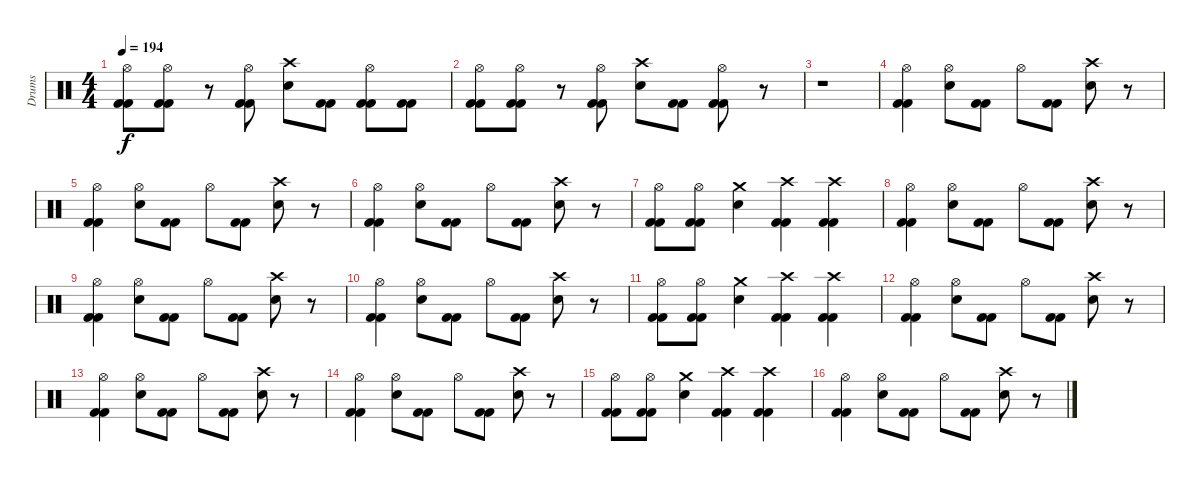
\track ("Drums" "Drums") {instrument percussion}
\staff {score}
\articulation defaults
\ts (4 4)
\tempo 194
\clef neutral
\ks c
("Hi-Hat (open)" "Kick (hit) 2" "Kick (hit) 2").8{dy f} ("Hi-Hat (open)" "Kick (hit) 2" "Kick (hit) 2").8 r.8 ("Hi-Hat (open)" "Kick (hit) 2" "Kick (hit) 2").8 ("Crash high (hit)" "Electric Snare (hit)").8 ("Kick (hit) 2" "Kick (hit) 2").8 ("Hi-Hat (open)" "Kick (hit) 2" "Kick (hit) 2").8 ("Kick (hit) 2" "Kick (hit) 2").8 |
("Hi-Hat (open)" "Kick (hit) 2" "Kick (hit) 2").8 ("Hi-Hat (open)" "Kick (hit) 2" "Kick (hit) 2").8 r.8 ("Hi-Hat (open)" "Kick (hit) 2" "Kick (hit) 2").8 ("Crash high (hit)" "Electric Snare (hit)").8 ("Kick (hit) 2" "Kick (hit) 2").8 ("Hi-Hat (open)" "Kick (hit) 2" "Kick (hit) 2").8 r.8 |
r.1 |
("Hi-Hat (open)" "Kick (hit) 2" "Kick (hit) 2").4 ("Hi-Hat (open)" "Electric Snare (hit)").8 ("Kick (hit) 2" "Kick (hit) 2").8 "Hi-Hat (open)".8 ("Kick (hit) 2" "Kick (hit) 2").8 ("Crash high (hit)" "Electric Snare (hit)").8 r.8 |
("Hi-Hat (open)" "Kick (hit) 2" "Kick (hit) 2").4 ("Hi-Hat (open)" "Electric Snare (hit)").8 ("Kick (hit) 2" "Kick (hit) 2").8 "Hi-Hat (open)".8 ("Kick (hit) 2" "Kick (hit) 2").8 ("Crash high (hit)" "Electric Snare (hit)").8 r.8 |
("Hi-Hat (open)" "Kick (hit) 2" "Kick (hit) 2").4 ("Hi-Hat (open)" "Electric Snare (hit)").8 ("Kick (hit) 2" "Kick (hit) 2").8 "Hi-Hat (open)".8 ("Kick (hit) 2" "Kick (hit) 2").8 ("Crash high (hit)" "Electric Snare (hit)").8 r.8 |
("Hi-Hat (open)" "Kick (hit) 2" "Kick (hit) 2").8 ("Hi-Hat (open)" "Kick (hit) 2" "Kick (hit) 2").8 ("Crash medium (hit)" "Electric Snare (hit)").4 ("Crash high (hit)" "Kick (hit) 2" "Kick (hit) 2").4 ("Crash high (hit)" "Kick (hit) 2" "Kick (hit) 2").4 |
("Hi-Hat (open)" "Kick (hit) 2" "Kick (hit) 2").4 ("Hi-Hat (open)" "Electric Snare (hit)").8 ("Kick (hit) 2" "Kick (hit) 2").8 "Hi-Hat (open)".8 ("Kick (hit) 2" "Kick (hit) 2").8 ("Crash high (hit)" "Electric Snare (hit)").8 r.8 |
("Hi-Hat (open)" "Kick (hit) 2" "Kick (hit) 2").4 ("Hi-Hat (open)" "Electric Snare (hit)").8 ("Kick (hit) 2" "Kick (hit) 2").8 "Hi-Hat (open)".8 ("Kick (hit) 2" "Kick (hit) 2").8 ("Crash high (hit)" "Electric Snare (hit)").8 r.8 |
("Hi-Hat (open)" "Kick (hit) 2" "Kick (hit) 2").4 ("Hi-Hat (open)" "Electric Snare (hit)").8 ("Kick (hit) 2" "Kick (hit) 2").8 "Hi-Hat (open)".8 ("Kick (hit) 2" "Kick (hit) 2").8 ("Crash high (hit)" "Electric Snare (hit)").8 r.8 |
("Hi-Hat (open)" "Kick (hit) 2" "Kick (hit) 2").8 ("Hi-Hat (open)" "Kick (hit) 2" "Kick (hit) 2").8 ("Crash medium (hit)" "Electric Snare (hit)").4 ("Crash high (hit)" "Kick (hit) 2" "Kick (hit) 2").4 ("Crash high (hit)" "Kick (hit) 2" "Kick (hit) 2").4 |
("Hi-Hat (open)" "Kick (hit) 2" "Kick (hit) 2").4 ("Hi-Hat (open)" "Electric Snare (hit)").8 ("Kick (hit) 2" "Kick (hit) 2").8 "Hi-Hat (open)".8 ("Kick (hit) 2" "Kick (hit) 2").8 ("Crash high (hit)" "Electric Snare (hit)").8 r.8 |
("Hi-Hat (open)" "Kick (hit) 2" "Kick (hit) 2").4 ("Hi-Hat (open)" "Electric Snare (hit)").8 ("Kick (hit) 2" "Kick (hit) 2").8 "Hi-Hat (open)".8 ("Kick (hit) 2" "Kick (hit) 2").8 ("Crash high (hit)" "Electric Snare (hit)").8 r.8 |
("Hi-Hat (open)" "Kick (hit) 2" "Kick (hit) 2").4 ("Hi-Hat (open)" "Electric Snare (hit)").8 ("Kick (hit) 2" "Kick (hit) 2").8 "Hi-Hat (open)".8 ("Kick (hit) 2" "Kick (hit) 2").8 ("Crash high (hit)" "Electric Snare (hit)").8 r.8 |
("Hi-Hat (open)" "Kick (hit) 2" "Kick (hit) 2").8 ("Hi-Hat (open)" "Kick (hit) 2" "Kick (hit) 2").8 ("Crash medium (hit)" "Electric Snare (hit)").4 ("Crash high (hit)" "Kick (hit) 2" "Kick (hit) 2").4 ("Crash high (hit)" "Kick (hit) 2" "Kick (hit) 2").4 |
("Hi-Hat (open)" "Kick (hit) 2" "Kick (hit) 2").4 ("Hi-Hat (open)" "Electric Snare (hit)").8 ("Kick (hit) 2" "Kick (hit) 2").8 "Hi-Hat (open)".8 ("Kick (hit) 2" "Kick (hit) 2").8 ("Crash high (hit)" "Electric Snare (hit)").8 r.8
